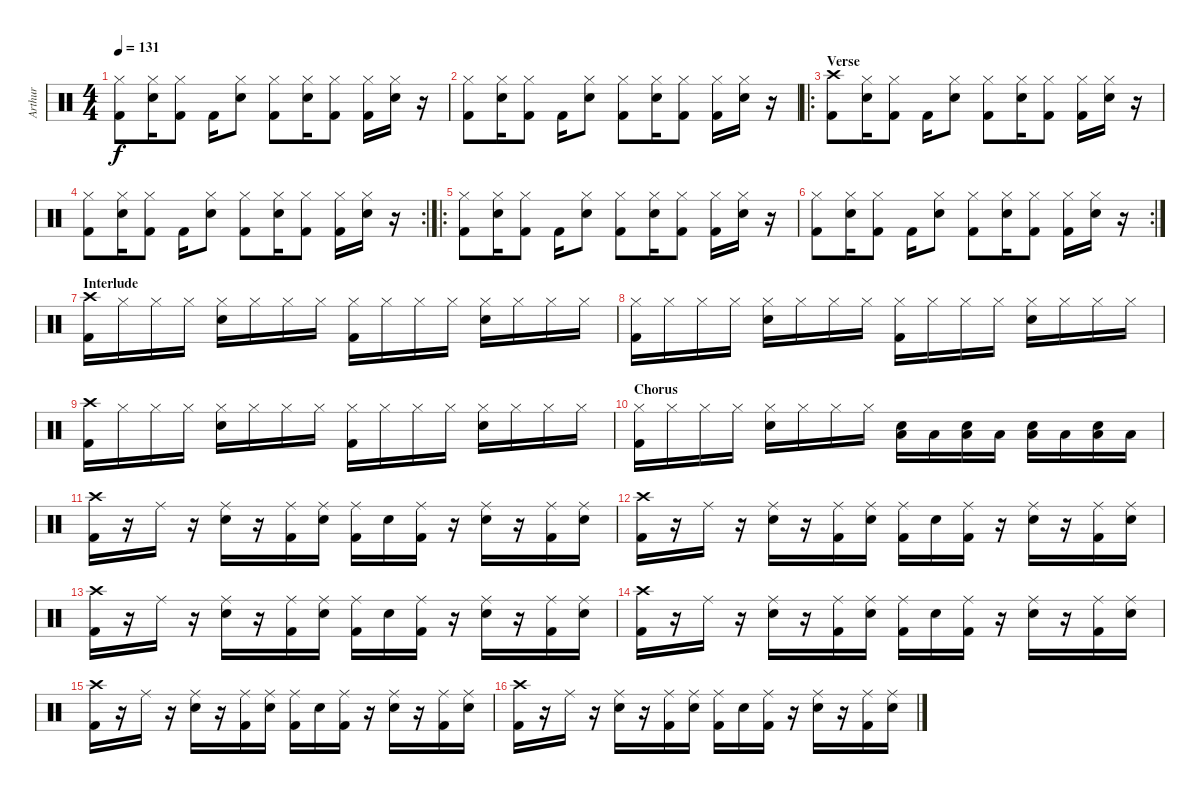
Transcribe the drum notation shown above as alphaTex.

\track ("Arthur" "Arthur") {instrument percussion}
\staff {score}
\articulation defaults
\ts (4 4)
\tempo 131
\clef neutral
\ks c
("Hi-Hat (closed)" "Kick (hit) 2").8{dy f} ("Hi-Hat (closed)" "Snare (hit) 2").16 ("Hi-Hat (closed)" "Kick (hit) 2").8 "Kick (hit) 2".16 ("Hi-Hat (closed)" "Snare (hit) 2").8 ("Hi-Hat (closed)" "Kick (hit) 2").8 ("Hi-Hat (closed)" "Snare (hit) 2").16 ("Hi-Hat (closed)" "Kick (hit) 2").8 ("Hi-Hat (closed)" "Kick (hit) 2").16 ("Hi-Hat (closed)" "Snare (hit) 2").16 r.16 |
("Hi-Hat (closed)" "Kick (hit) 2").8 ("Hi-Hat (closed)" "Snare (hit) 2").16 ("Hi-Hat (closed)" "Kick (hit) 2").8 "Kick (hit) 2".16 ("Hi-Hat (closed)" "Snare (hit) 2").8 ("Hi-Hat (closed)" "Kick (hit) 2").8 ("Hi-Hat (closed)" "Snare (hit) 2").16 ("Hi-Hat (closed)" "Kick (hit) 2").8 ("Hi-Hat (closed)" "Kick (hit) 2").16 ("Hi-Hat (closed)" "Snare (hit) 2").16 r.16 |
\ro
\section ("" "Verse")
("Crash high (hit)" "Kick (hit) 2").8 ("Hi-Hat (closed)" "Snare (hit) 2").16 ("Hi-Hat (closed)" "Kick (hit) 2").8 "Kick (hit) 2".16 ("Hi-Hat (closed)" "Snare (hit) 2").8 ("Hi-Hat (closed)" "Kick (hit) 2").8 ("Hi-Hat (closed)" "Snare (hit) 2").16 ("Hi-Hat (closed)" "Kick (hit) 2").8 ("Hi-Hat (closed)" "Kick (hit) 2").16 ("Hi-Hat (closed)" "Snare (hit) 2").16 r.16 |
\rc 2
("Hi-Hat (closed)" "Kick (hit) 2").8 ("Hi-Hat (closed)" "Snare (hit) 2").16 ("Hi-Hat (closed)" "Kick (hit) 2").8 "Kick (hit) 2".16 ("Hi-Hat (closed)" "Snare (hit) 2").8 ("Hi-Hat (closed)" "Kick (hit) 2").8 ("Hi-Hat (closed)" "Snare (hit) 2").16 ("Hi-Hat (closed)" "Kick (hit) 2").8 ("Hi-Hat (closed)" "Kick (hit) 2").16 ("Hi-Hat (closed)" "Snare (hit) 2").16 r.16 |
\ro
("Hi-Hat (closed)" "Kick (hit) 2").8 ("Hi-Hat (closed)" "Snare (hit) 2").16 ("Hi-Hat (closed)" "Kick (hit) 2").8 "Kick (hit) 2".16 ("Hi-Hat (closed)" "Snare (hit) 2").8 ("Hi-Hat (closed)" "Kick (hit) 2").8 ("Hi-Hat (closed)" "Snare (hit) 2").16 ("Hi-Hat (closed)" "Kick (hit) 2").8 ("Hi-Hat (closed)" "Kick (hit) 2").16 ("Hi-Hat (closed)" "Snare (hit) 2").16 r.16 |
\rc 2
("Hi-Hat (closed)" "Kick (hit) 2").8 ("Hi-Hat (closed)" "Snare (hit) 2").16 ("Hi-Hat (closed)" "Kick (hit) 2").8 "Kick (hit) 2".16 ("Hi-Hat (closed)" "Snare (hit) 2").8 ("Hi-Hat (closed)" "Kick (hit) 2").8 ("Hi-Hat (closed)" "Snare (hit) 2").16 ("Hi-Hat (closed)" "Kick (hit) 2").8 ("Hi-Hat (closed)" "Kick (hit) 2").16 ("Hi-Hat (closed)" "Snare (hit) 2").16 r.16 |
\section ("" "Interlude")
("Crash high (hit)" "Kick (hit) 2").16 "Hi-Hat (closed)".16 "Hi-Hat (closed)".16 "Hi-Hat (closed)".16 ("Hi-Hat (closed)" "Snare (hit) 2").16 "Hi-Hat (closed)".16 "Hi-Hat (closed)".16 "Hi-Hat (closed)".16 ("Hi-Hat (closed)" "Kick (hit) 2").16 "Hi-Hat (closed)".16 "Hi-Hat (closed)".16 "Hi-Hat (closed)".16 ("Hi-Hat (closed)" "Snare (hit) 2").16 "Hi-Hat (closed)".16 "Hi-Hat (closed)".16 "Hi-Hat (closed)".16 |
("Hi-Hat (closed)" "Kick (hit) 2").16 "Hi-Hat (closed)".16 "Hi-Hat (closed)".16 "Hi-Hat (closed)".16 ("Hi-Hat (closed)" "Snare (hit) 2").16 "Hi-Hat (closed)".16 "Hi-Hat (closed)".16 "Hi-Hat (closed)".16 ("Hi-Hat (closed)" "Kick (hit) 2").16 "Hi-Hat (closed)".16 "Hi-Hat (closed)".16 "Hi-Hat (closed)".16 ("Hi-Hat (closed)" "Snare (hit) 2").16 "Hi-Hat (closed)".16 "Hi-Hat (closed)".16 "Hi-Hat (closed)".16 |
("Crash high (hit)" "Kick (hit) 2").16 "Hi-Hat (closed)".16 "Hi-Hat (closed)".16 "Hi-Hat (closed)".16 ("Hi-Hat (closed)" "Snare (hit) 2").16 "Hi-Hat (closed)".16 "Hi-Hat (closed)".16 "Hi-Hat (closed)".16 ("Hi-Hat (closed)" "Kick (hit) 2").16 "Hi-Hat (closed)".16 "Hi-Hat (closed)".16 "Hi-Hat (closed)".16 ("Hi-Hat (closed)" "Snare (hit) 2").16 "Hi-Hat (closed)".16 "Hi-Hat (closed)".16 "Hi-Hat (closed)".16 |
\section ("" "Chorus")
("Hi-Hat (closed)" "Kick (hit) 2").16 "Hi-Hat (closed)".16 "Hi-Hat (closed)".16 "Hi-Hat (closed)".16 ("Hi-Hat (closed)" "Snare (hit) 2").16 "Hi-Hat (closed)".16 "Hi-Hat (closed)".16 "Hi-Hat (closed)".16 ("Low Floor Tom (hit)" "Snare (hit) 2").16 "Low Floor Tom (hit)".16 ("Low Floor Tom (hit)" "Snare (hit) 2").16 "Low Floor Tom (hit)".16 ("Low Floor Tom (hit)" "Snare (hit) 2").16 "Low Floor Tom (hit)".16 ("Low Floor Tom (hit)" "Snare (hit) 2").16 "Low Floor Tom (hit)".16 |
("Kick (hit) 2" "Crash high (hit)").16 r.16 "Ride (middle)".16 r.16 ("Ride (middle)" "Snare (hit) 2").16 r.16 ("Ride (middle)" "Kick (hit) 2").16 ("Ride (middle)" "Snare (hit) 2").16 ("Ride (middle)" "Kick (hit) 2").16 "Snare (hit) 2".16 ("Ride (middle)" "Kick (hit) 2").16 r.16 ("Ride (middle)" "Snare (hit) 2").16 r.16 ("Ride (middle)" "Kick (hit) 2").16 ("Ride (middle)" "Snare (hit) 2").16 |
("Kick (hit) 2" "Crash high (hit)").16 r.16 "Ride (middle)".16 r.16 ("Ride (middle)" "Snare (hit) 2").16 r.16 ("Ride (middle)" "Kick (hit) 2").16 ("Ride (middle)" "Snare (hit) 2").16 ("Ride (middle)" "Kick (hit) 2").16 "Snare (hit) 2".16 ("Ride (middle)" "Kick (hit) 2").16 r.16 ("Ride (middle)" "Snare (hit) 2").16 r.16 ("Ride (middle)" "Kick (hit) 2").16 ("Ride (middle)" "Snare (hit) 2").16 |
("Kick (hit) 2" "Crash high (hit)").16 r.16 "Ride (middle)".16 r.16 ("Ride (middle)" "Snare (hit) 2").16 r.16 ("Ride (middle)" "Kick (hit) 2").16 ("Ride (middle)" "Snare (hit) 2").16 ("Ride (middle)" "Kick (hit) 2").16 "Snare (hit) 2".16 ("Ride (middle)" "Kick (hit) 2").16 r.16 ("Ride (middle)" "Snare (hit) 2").16 r.16 ("Ride (middle)" "Kick (hit) 2").16 ("Ride (middle)" "Snare (hit) 2").16 |
("Kick (hit) 2" "Crash high (hit)").16 r.16 "Ride (middle)".16 r.16 ("Ride (middle)" "Snare (hit) 2").16 r.16 ("Ride (middle)" "Kick (hit) 2").16 ("Ride (middle)" "Snare (hit) 2").16 ("Ride (middle)" "Kick (hit) 2").16 "Snare (hit) 2".16 ("Ride (middle)" "Kick (hit) 2").16 r.16 ("Ride (middle)" "Snare (hit) 2").16 r.16 ("Ride (middle)" "Kick (hit) 2").16 ("Ride (middle)" "Snare (hit) 2").16 |
("Kick (hit) 2" "Crash high (hit)").16 r.16 "Ride (middle)".16 r.16 ("Ride (middle)" "Snare (hit) 2").16 r.16 ("Ride (middle)" "Kick (hit) 2").16 ("Ride (middle)" "Snare (hit) 2").16 ("Ride (middle)" "Kick (hit) 2").16 "Snare (hit) 2".16 ("Ride (middle)" "Kick (hit) 2").16 r.16 ("Ride (middle)" "Snare (hit) 2").16 r.16 ("Ride (middle)" "Kick (hit) 2").16 ("Ride (middle)" "Snare (hit) 2").16 |
("Kick (hit) 2" "Crash high (hit)").16 r.16 "Ride (middle)".16 r.16 ("Ride (middle)" "Snare (hit) 2").16 r.16 ("Ride (middle)" "Kick (hit) 2").16 ("Ride (middle)" "Snare (hit) 2").16 ("Ride (middle)" "Kick (hit) 2").16 "Snare (hit) 2".16 ("Ride (middle)" "Kick (hit) 2").16 r.16 ("Ride (middle)" "Snare (hit) 2").16 r.16 ("Ride (middle)" "Kick (hit) 2").16 ("Ride (middle)" "Snare (hit) 2").16
